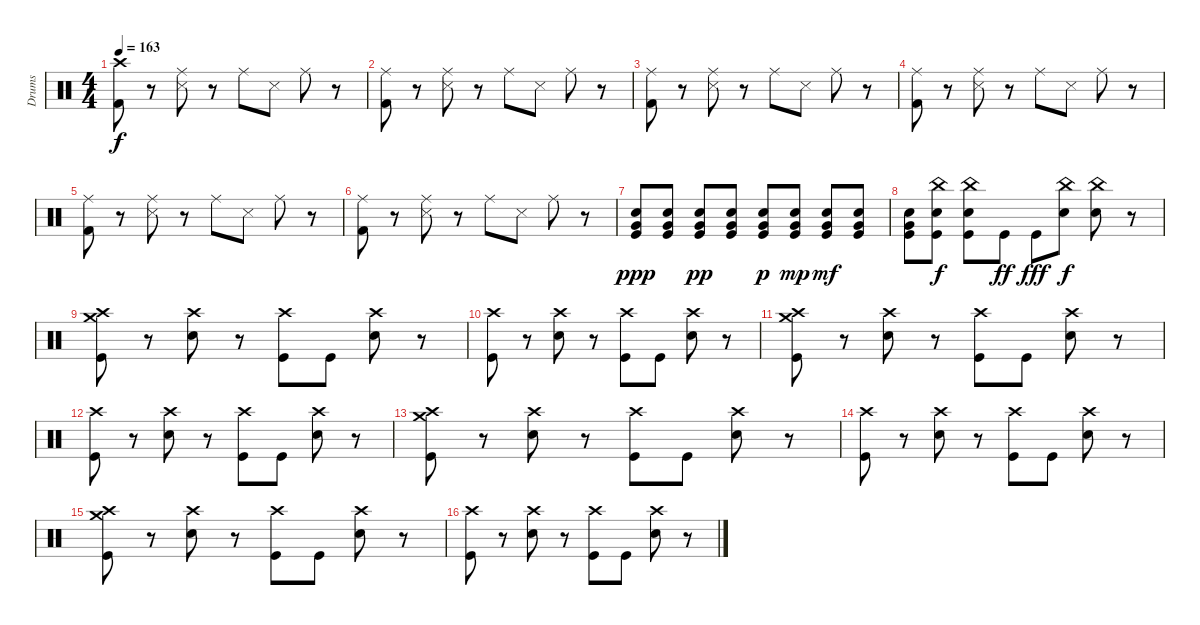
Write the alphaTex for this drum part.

\track ("Drums" "Drums") {instrument percussion}
\staff {score}
\articulation defaults
\ts (4 4)
\tempo 163
\clef neutral
\ks c
("Crash high (hit)" "Kick (hit) 2").8{dy f} r.8 ("Ride (middle)" "Snare (side stick) 3").8 r.8 "Ride (middle)".8 "Snare (side stick) 3".8 "Ride (middle)".8 r.8 |
("Ride (middle)" "Kick (hit) 2").8 r.8 ("Ride (middle)" "Snare (side stick) 3").8 r.8 "Ride (middle)".8 "Snare (side stick) 3".8 "Ride (middle)".8 r.8 |
("Ride (middle)" "Kick (hit) 2").8 r.8 ("Ride (middle)" "Snare (side stick) 3").8 r.8 "Ride (middle)".8 "Snare (side stick) 3".8 "Ride (middle)".8 r.8 |
("Ride (middle)" "Kick (hit) 2").8 r.8 ("Ride (middle)" "Snare (side stick) 3").8 r.8 "Ride (middle)".8 "Snare (side stick) 3".8 "Ride (middle)".8 r.8 |
("Ride (middle)" "Kick (hit) 2").8 r.8 ("Ride (middle)" "Snare (side stick) 3").8 r.8 "Ride (middle)".8 "Snare (side stick) 3".8 "Ride (middle)".8 r.8 |
("Ride (middle)" "Kick (hit) 2").8 r.8 ("Ride (middle)" "Snare (side stick) 3").8 r.8 "Ride (middle)".8 "Snare (side stick) 3".8 "Ride (middle)".8 r.8 |
("Electric Snare (hit)" "Very Low Tom (hit)" "Kick (hit)").8{dy ppp} ("Electric Snare (hit)" "Very Low Tom (hit)" "Kick (hit)").8 ("Electric Snare (hit)" "Very Low Tom (hit)" "Kick (hit)").8{dy pp} ("Electric Snare (hit)" "Very Low Tom (hit)" "Kick (hit)").8 ("Electric Snare (hit)" "Very Low Tom (hit)" "Kick (hit)").8{dy p} ("Electric Snare (hit)" "Very Low Tom (hit)" "Kick (hit)").8{dy mp} ("Electric Snare (hit)" "Very Low Tom (hit)" "Kick (hit)").8{dy mf} ("Electric Snare (hit)" "Very Low Tom (hit)" "Kick (hit)").8 |
("Electric Snare (hit)" "Kick (hit)" "Very Low Tom (hit)").8 ("Electric Snare (hit)" "Kick (hit)" "China (hit)").8{dy f} ("Electric Snare (hit)" "Kick (hit)" "China (hit)").8 "Kick (hit)".8{dy ff} "Kick (hit)".8{dy fff} ("Electric Snare (hit)" "China (hit)").8{dy f} ("Electric Snare (hit)" "China (hit)").8 r.8 |
("Crash high (hit)" "Crash medium (hit)" "Kick (hit)").8 r.8 ("Crash high (hit)" "Electric Snare (hit)").8 r.8 ("Crash high (hit)" "Kick (hit)").8 "Kick (hit)".8 ("Crash high (hit)" "Electric Snare (hit)").8 r.8 |
("Crash high (hit)" "Kick (hit)").8 r.8 ("Crash high (hit)" "Electric Snare (hit)").8 r.8 ("Crash high (hit)" "Kick (hit)").8 "Kick (hit)".8 ("Crash high (hit)" "Electric Snare (hit)").8 r.8 |
("Crash high (hit)" "Crash medium (hit)" "Kick (hit)").8 r.8 ("Crash high (hit)" "Electric Snare (hit)").8 r.8 ("Crash high (hit)" "Kick (hit)").8 "Kick (hit)".8 ("Crash high (hit)" "Electric Snare (hit)").8 r.8 |
("Crash high (hit)" "Kick (hit)").8 r.8 ("Crash high (hit)" "Electric Snare (hit)").8 r.8 ("Crash high (hit)" "Kick (hit)").8 "Kick (hit)".8 ("Crash high (hit)" "Electric Snare (hit)").8 r.8 |
("Crash high (hit)" "Crash medium (hit)" "Kick (hit)").8 r.8 ("Crash high (hit)" "Electric Snare (hit)").8 r.8 ("Crash high (hit)" "Kick (hit)").8 "Kick (hit)".8 ("Crash high (hit)" "Electric Snare (hit)").8 r.8 |
("Crash high (hit)" "Kick (hit)").8 r.8 ("Crash high (hit)" "Electric Snare (hit)").8 r.8 ("Crash high (hit)" "Kick (hit)").8 "Kick (hit)".8 ("Crash high (hit)" "Electric Snare (hit)").8 r.8 |
("Crash high (hit)" "Crash medium (hit)" "Kick (hit)").8 r.8 ("Crash high (hit)" "Electric Snare (hit)").8 r.8 ("Crash high (hit)" "Kick (hit)").8 "Kick (hit)".8 ("Crash high (hit)" "Electric Snare (hit)").8 r.8 |
("Crash high (hit)" "Kick (hit)").8 r.8 ("Crash high (hit)" "Electric Snare (hit)").8 r.8 ("Crash high (hit)" "Kick (hit)").8 "Kick (hit)".8 ("Crash high (hit)" "Electric Snare (hit)").8 r.8
